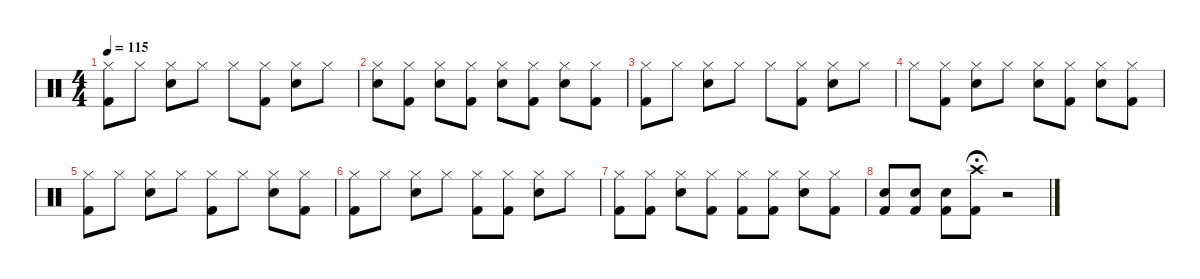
\defaultSystemsLayout 4
\hideDynamics
\bracketExtendMode nobrackets
\singleTrackTrackNamePolicy hidden
\multiTrackTrackNamePolicy hidden
\otherSystemsTrackNameOrientation horizontal
\track ("Drums" "drm.") {defaultSystemsLayout 4 instrument percussion}
\staff {score}
\articulation defaults
\ts (4 4)
\tempo 115
\clef neutral
\ks c
("Hi-Hat (closed)" "Kick (hit) 2").8{dy f} "Hi-Hat (closed)".8 ("Hi-Hat (closed)" "Snare (hit) 2").8 "Hi-Hat (closed)".8 "Hi-Hat (closed)".8 ("Hi-Hat (closed)" "Kick (hit) 2").8 ("Hi-Hat (closed)" "Snare (hit) 2").8 "Hi-Hat (closed)".8 |
("Hi-Hat (closed)" "Snare (hit) 2").8 ("Hi-Hat (closed)" "Kick (hit) 2").8 ("Hi-Hat (closed)" "Snare (hit) 2").8 ("Hi-Hat (closed)" "Kick (hit) 2").8 ("Hi-Hat (closed)" "Snare (hit) 2").8 ("Hi-Hat (closed)" "Kick (hit) 2").8 ("Hi-Hat (closed)" "Snare (hit) 2").8 ("Hi-Hat (closed)" "Kick (hit) 2").8 |
("Hi-Hat (closed)" "Kick (hit) 2").8 "Hi-Hat (closed)".8 ("Hi-Hat (closed)" "Snare (hit) 2").8 "Hi-Hat (closed)".8 "Hi-Hat (closed)".8 ("Hi-Hat (closed)" "Kick (hit) 2").8 ("Hi-Hat (closed)" "Snare (hit) 2").8 "Hi-Hat (closed)".8 |
"Hi-Hat (closed)".8 ("Hi-Hat (closed)" "Kick (hit) 2").8 ("Hi-Hat (closed)" "Snare (hit) 2").8 "Hi-Hat (closed)".8 ("Hi-Hat (closed)" "Snare (hit) 2").8 ("Hi-Hat (closed)" "Kick (hit) 2").8 ("Hi-Hat (closed)" "Snare (hit) 2").8 ("Hi-Hat (closed)" "Kick (hit) 2").8 |
("Hi-Hat (closed)" "Kick (hit) 2").8 "Hi-Hat (closed)".8 ("Hi-Hat (closed)" "Snare (hit) 2").8 "Hi-Hat (closed)".8 ("Hi-Hat (closed)" "Kick (hit) 2").8 "Hi-Hat (closed)".8 ("Hi-Hat (closed)" "Snare (hit) 2").8 ("Hi-Hat (closed)" "Kick (hit) 2").8 |
("Hi-Hat (closed)" "Kick (hit) 2").8 "Hi-Hat (closed)".8 ("Hi-Hat (closed)" "Snare (hit) 2").8 "Hi-Hat (closed)".8 ("Hi-Hat (closed)" "Kick (hit) 2").8 ("Hi-Hat (closed)" "Kick (hit) 2").8 ("Hi-Hat (closed)" "Snare (hit) 2").8 "Hi-Hat (closed)".8 |
("Hi-Hat (closed)" "Kick (hit) 2").8 ("Hi-Hat (closed)" "Kick (hit) 2").8 ("Hi-Hat (closed)" "Snare (hit) 2").8 ("Hi-Hat (closed)" "Kick (hit) 2").8 ("Hi-Hat (closed)" "Kick (hit) 2").8 ("Hi-Hat (closed)" "Kick (hit) 2").8 ("Hi-Hat (closed)" "Snare (hit) 2").8 ("Hi-Hat (closed)" "Kick (hit) 2").8 |
("Snare (hit) 2" "Kick (hit) 2").8 ("Snare (hit) 2" "Kick (hit) 2").8 ("Snare (hit) 2" "Kick (hit) 2").8 ("Crash high (hit)" "Kick (hit) 2").8{fermata (medium 1)} r.2
